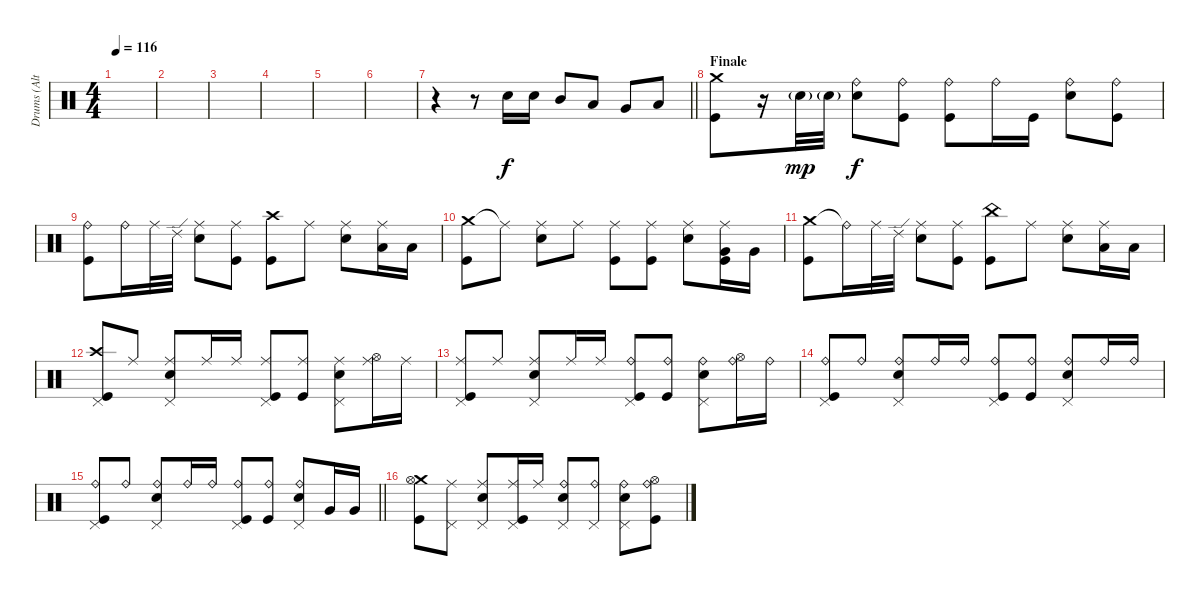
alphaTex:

\track ("Drums (Alternate - NOT ON MASTER)" "Drums (Alt") {mute instrument percussion}
\staff {score}
\articulation defaults
\ts (4 4)
\tempo 116
\clef neutral
\ks c
|
|
|
|
|
|
\barLineRight lightlight
r.4 r.8 "Snare (hit) 2".16 "Snare (hit) 2".16 "Mid Tom (hit)".8 "Low Tom (hit)".8 "Very Low Tom (hit)".8 "Low Floor Tom (hit)".8 |
\section ("" "Finale")
("Crash medium (hit)" "Kick (hit)").8 r.16 "Snare (hit) 2"{g}.32{dy mp} "Snare (hit) 2"{g}.32 ("Ride (bell)" "Snare (hit) 2").8{dy f} ("Ride (bell)" "Kick (hit)").8 ("Ride (bell)" "Kick (hit)").8 "Ride (bell)".16 "Kick (hit)".16 ("Ride (bell)" "Snare (hit) 2").8 ("Ride (bell)" "Kick (hit)").8 |
("Ride (bell)" "Kick (hit)").8 "Ride (bell)".16 "Ride (middle)".32 "Ride (edge) 2".32 ("Ride (middle)" "Snare (hit) 2").8 ("Ride (middle)" "Kick (hit)").8 ("Crash high (hit)" "Kick (hit)").8 "Ride (middle)".8 ("Ride (middle)" "Snare (hit) 2").8 ("Ride (middle)" "Low Floor Tom (hit)").16 "Low Floor Tom (hit)".16 |
("Crash medium (hit)" "Kick (hit)").8 "Ride (middle)"{t}.8 ("Ride (middle)" "Snare (hit) 2").8 "Ride (middle)".8 ("Ride (middle)" "Kick (hit)").8 ("Ride (middle)" "Kick (hit)").8 ("Ride (middle)" "Snare (hit) 2").8 ("Ride (middle)" "Very Low Tom (hit)" "Kick (hit)").16 "Very Low Tom (hit)".16 |
("Crash medium (hit)" "Kick (hit)").8 "Ride (bell)"{t}.16 "Ride (middle)".32 "Ride (edge) 2".32 ("Ride (middle)" "Snare (hit) 2").8 ("Ride (middle)" "Kick (hit)").8 ("China (hit)" "Kick (hit)").8 "Ride (middle)".8 ("Ride (middle)" "Snare (hit) 2").8 ("Ride (middle)" "Low Floor Tom (hit)").16 "Low Floor Tom (hit)".16 |
("Crash high (hit)" "Pedal Hi-Hat (hit)" "Kick (hit)").8 "Ride (middle)".8 ("Ride (middle)" "Snare (hit) 2" "Pedal Hi-Hat (hit)").8 "Ride (middle)".16 "Ride (middle)".16 ("Ride (middle)" "Pedal Hi-Hat (hit)" "Kick (hit)").8 ("Ride (middle)" "Kick (hit)").8 ("Ride (middle)" "Snare (hit) 2" "Pedal Hi-Hat (hit)").8 ("Ride (middle)" "Hi-Hat (open)").16 "Ride (middle)".16 |
("Ride (middle)" "Pedal Hi-Hat (hit)" "Kick (hit)").8 "Ride (middle)".8 ("Ride (middle)" "Snare (hit) 2" "Pedal Hi-Hat (hit)").8 "Ride (middle)".16 "Ride (middle)".16 ("Ride (bell)" "Pedal Hi-Hat (hit)" "Kick (hit)").8 ("Ride (bell)" "Kick (hit)").8 ("Ride (bell)" "Snare (hit) 2" "Pedal Hi-Hat (hit)").8 ("Ride (bell)" "Hi-Hat (open)").16 "Ride (bell)".16 |
("Ride (bell)" "Pedal Hi-Hat (hit)" "Kick (hit)").8 "Ride (bell)".8 ("Ride (bell)" "Snare (hit) 2" "Pedal Hi-Hat (hit)").8 "Ride (bell)".16 "Ride (bell)".16 ("Ride (bell)" "Pedal Hi-Hat (hit)" "Kick (hit)").8 ("Ride (bell)" "Kick (hit)").8 ("Ride (bell)" "Snare (hit) 2" "Pedal Hi-Hat (hit)").8 "Ride (bell)".16 "Ride (bell)".16 |
\barLineRight lightlight
("Ride (bell)" "Pedal Hi-Hat (hit)" "Kick (hit)").8 "Ride (bell)".8 ("Ride (bell)" "Snare (hit) 2" "Pedal Hi-Hat (hit)").8 "Ride (bell)".16 "Ride (bell)".16 ("Ride (bell)" "Pedal Hi-Hat (hit)" "Kick (hit)").8 ("Ride (bell)" "Kick (hit)").8 ("Ride (bell)" "Snare (hit) 2" "Pedal Hi-Hat (hit)").8 "Very Low Tom (hit)".16 "Very Low Tom (hit)".16 |
("Crash medium (hit)" "Hi-Hat (open)" "Kick (hit)").8 ("Ride (middle)" "Pedal Hi-Hat (hit)").8 ("Ride (middle)" "Snare (hit) 2" "Pedal Hi-Hat (hit)").8 ("Ride (middle)" "Pedal Hi-Hat (hit)" "Kick (hit)").16 "Ride (middle)".16 ("Ride (bell)" "Snare (hit) 2" "Pedal Hi-Hat (hit)").8 ("Ride (bell)" "Pedal Hi-Hat (hit)").8 ("Ride (bell)" "Snare (hit) 2" "Pedal Hi-Hat (hit)").8 ("Ride (bell)" "Hi-Hat (open)" "Kick (hit)").8
